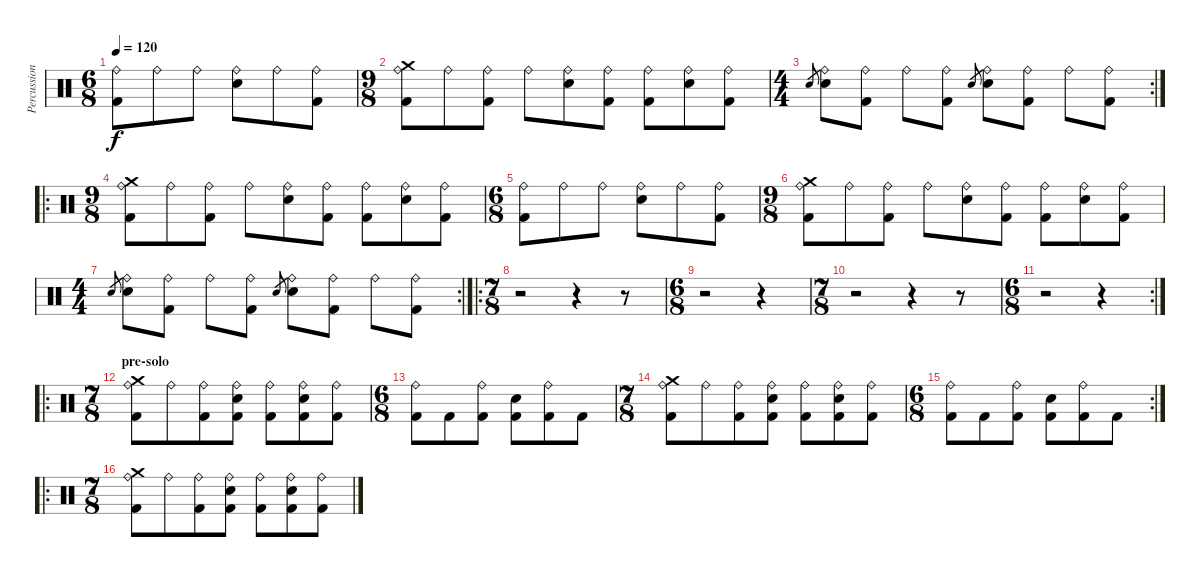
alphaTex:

\track ("Percussion" "Percussion") {instrument percussion}
\staff {score}
\articulation defaults
\ts (6 8)
\tempo 120
\clef neutral
\ks c
("Ride (bell)" "Kick (hit) 2").8{dy f} "Ride (bell)".8 "Ride (bell)".8 ("Ride (bell)" "Electric Snare (hit)").8 "Ride (bell)".8 ("Ride (bell)" "Kick (hit) 2").8 |
\ts (9 8)
("Crash medium (hit)" "Ride (bell)" "Kick (hit) 2").8 "Ride (bell)".8 ("Ride (bell)" "Kick (hit) 2").8 "Ride (bell)".8 ("Ride (bell)" "Electric Snare (hit)").8 ("Ride (bell)" "Kick (hit) 2").8 ("Ride (bell)" "Kick (hit) 2").8 ("Ride (bell)" "Electric Snare (hit)").8 ("Ride (bell)" "Kick (hit) 2").8 |
\rc 2
\ts (4 4)
"Electric Snare (hit)".8{gr} ("Ride (bell)" "Electric Snare (hit)").8 ("Ride (bell)" "Kick (hit) 2").8 "Ride (bell)".8 ("Ride (bell)" "Kick (hit) 2").8 "Electric Snare (hit)".8{gr} ("Ride (bell)" "Electric Snare (hit)").8 ("Ride (bell)" "Kick (hit) 2").8 "Ride (bell)".8 ("Ride (bell)" "Kick (hit) 2").8 |
\ro
\ts (9 8)
("Crash medium (hit)" "Ride (bell)" "Kick (hit) 2").8 "Ride (bell)".8 ("Ride (bell)" "Kick (hit) 2").8 "Ride (bell)".8 ("Ride (bell)" "Electric Snare (hit)").8 ("Ride (bell)" "Kick (hit) 2").8 ("Ride (bell)" "Kick (hit) 2").8 ("Ride (bell)" "Electric Snare (hit)").8 ("Ride (bell)" "Kick (hit) 2").8 |
\ts (6 8)
("Ride (bell)" "Kick (hit) 2").8 "Ride (bell)".8 "Ride (bell)".8 ("Ride (bell)" "Electric Snare (hit)").8 "Ride (bell)".8 ("Ride (bell)" "Kick (hit) 2").8 |
\ts (9 8)
("Crash medium (hit)" "Ride (bell)" "Kick (hit) 2").8 "Ride (bell)".8 ("Ride (bell)" "Kick (hit) 2").8 "Ride (bell)".8 ("Ride (bell)" "Electric Snare (hit)").8 ("Ride (bell)" "Kick (hit) 2").8 ("Ride (bell)" "Kick (hit) 2").8 ("Ride (bell)" "Electric Snare (hit)").8 ("Ride (bell)" "Kick (hit) 2").8 |
\rc 2
\ts (4 4)
"Electric Snare (hit)".8{gr} ("Ride (bell)" "Electric Snare (hit)").8 ("Ride (bell)" "Kick (hit) 2").8 "Ride (bell)".8 ("Ride (bell)" "Kick (hit) 2").8 "Electric Snare (hit)".8{gr} ("Ride (bell)" "Electric Snare (hit)").8 ("Ride (bell)" "Kick (hit) 2").8 "Ride (bell)".8 ("Ride (bell)" "Kick (hit) 2").8 |
\ro
\ts (7 8)
r.2 r.4 r.8 |
\ts (6 8)
r.2 r.4 |
\ts (7 8)
r.2 r.4 r.8 |
\rc 2
\ts (6 8)
r.2 r.4 |
\ro
\ts (7 8)
\section ("" "pre-solo")
("Crash medium (hit)" "Ride (bell)" "Kick (hit) 2").8 "Ride (bell)".8 ("Ride (bell)" "Kick (hit) 2").8 ("Ride (bell)" "Electric Snare (hit)" "Kick (hit) 2").8 ("Ride (bell)" "Kick (hit) 2").8 ("Ride (bell)" "Electric Snare (hit)" "Kick (hit) 2").8 ("Ride (bell)" "Kick (hit) 2").8 |
\ts (6 8)
("Ride (bell)" "Kick (hit) 2").8 "Kick (hit) 2".8 ("Ride (bell)" "Kick (hit) 2").8 ("Electric Snare (hit)" "Kick (hit) 2").8 ("Ride (bell)" "Kick (hit) 2").8 "Kick (hit) 2".8 |
\ts (7 8)
("Crash medium (hit)" "Ride (bell)" "Kick (hit) 2").8 "Ride (bell)".8 ("Ride (bell)" "Kick (hit) 2").8 ("Ride (bell)" "Electric Snare (hit)" "Kick (hit) 2").8 ("Ride (bell)" "Kick (hit) 2").8 ("Ride (bell)" "Electric Snare (hit)" "Kick (hit) 2").8 ("Ride (bell)" "Kick (hit) 2").8 |
\rc 2
\ts (6 8)
("Ride (bell)" "Kick (hit) 2").8 "Kick (hit) 2".8 ("Ride (bell)" "Kick (hit) 2").8 ("Electric Snare (hit)" "Kick (hit) 2").8 ("Ride (bell)" "Kick (hit) 2").8 "Kick (hit) 2".8 |
\ro
\ts (7 8)
("Crash medium (hit)" "Ride (bell)" "Kick (hit) 2").8 "Ride (bell)".8 ("Ride (bell)" "Kick (hit) 2").8 ("Ride (bell)" "Electric Snare (hit)" "Kick (hit) 2").8 ("Ride (bell)" "Kick (hit) 2").8 ("Ride (bell)" "Electric Snare (hit)" "Kick (hit) 2").8 ("Ride (bell)" "Kick (hit) 2").8
